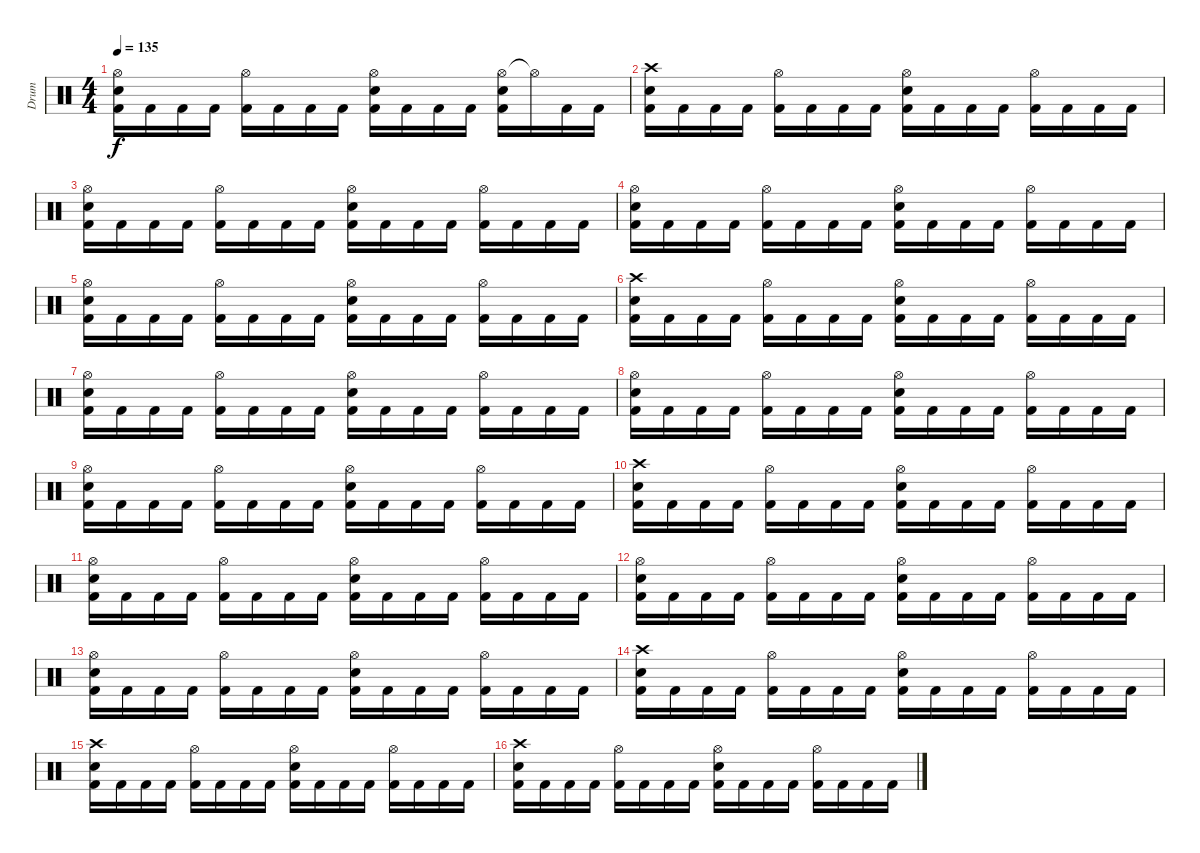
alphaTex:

\track ("Drum" "Drum") {instrument percussion}
\staff {score}
\articulation defaults
\ts (4 4)
\tempo 135
\clef neutral
\ks c
("Hi-Hat (open)" "Snare (hit) 2" "Kick (hit) 2").16{dy f} "Kick (hit) 2".16 "Kick (hit) 2".16 "Kick (hit) 2".16 ("Hi-Hat (open)" "Kick (hit) 2").16 "Kick (hit) 2".16 "Kick (hit) 2".16 "Kick (hit) 2".16 ("Hi-Hat (open)" "Snare (hit) 2" "Kick (hit) 2").16 "Kick (hit) 2".16 "Kick (hit) 2".16 "Kick (hit) 2".16 ("Hi-Hat (open)" "Snare (hit) 2" "Kick (hit) 2").16 "Hi-Hat (open)"{t}.16 "Kick (hit) 2".16 "Kick (hit) 2".16 |
("Crash high (hit)" "Snare (hit) 2" "Kick (hit) 2").16 "Kick (hit) 2".16 "Kick (hit) 2".16 "Kick (hit) 2".16 ("Hi-Hat (open)" "Kick (hit) 2").16 "Kick (hit) 2".16 "Kick (hit) 2".16 "Kick (hit) 2".16 ("Hi-Hat (open)" "Snare (hit) 2" "Kick (hit) 2").16 "Kick (hit) 2".16 "Kick (hit) 2".16 "Kick (hit) 2".16 ("Hi-Hat (open)" "Kick (hit) 2").16 "Kick (hit) 2".16 "Kick (hit) 2".16 "Kick (hit) 2".16 |
("Hi-Hat (open)" "Snare (hit) 2" "Kick (hit) 2").16 "Kick (hit) 2".16 "Kick (hit) 2".16 "Kick (hit) 2".16 ("Hi-Hat (open)" "Kick (hit) 2").16 "Kick (hit) 2".16 "Kick (hit) 2".16 "Kick (hit) 2".16 ("Hi-Hat (open)" "Snare (hit) 2" "Kick (hit) 2").16 "Kick (hit) 2".16 "Kick (hit) 2".16 "Kick (hit) 2".16 ("Hi-Hat (open)" "Kick (hit) 2").16 "Kick (hit) 2".16 "Kick (hit) 2".16 "Kick (hit) 2".16 |
("Hi-Hat (open)" "Snare (hit) 2" "Kick (hit) 2").16 "Kick (hit) 2".16 "Kick (hit) 2".16 "Kick (hit) 2".16 ("Hi-Hat (open)" "Kick (hit) 2").16 "Kick (hit) 2".16 "Kick (hit) 2".16 "Kick (hit) 2".16 ("Hi-Hat (open)" "Snare (hit) 2" "Kick (hit) 2").16 "Kick (hit) 2".16 "Kick (hit) 2".16 "Kick (hit) 2".16 ("Hi-Hat (open)" "Kick (hit) 2").16 "Kick (hit) 2".16 "Kick (hit) 2".16 "Kick (hit) 2".16 |
("Hi-Hat (open)" "Snare (hit) 2" "Kick (hit) 2").16 "Kick (hit) 2".16 "Kick (hit) 2".16 "Kick (hit) 2".16 ("Hi-Hat (open)" "Kick (hit) 2").16 "Kick (hit) 2".16 "Kick (hit) 2".16 "Kick (hit) 2".16 ("Hi-Hat (open)" "Snare (hit) 2" "Kick (hit) 2").16 "Kick (hit) 2".16 "Kick (hit) 2".16 "Kick (hit) 2".16 ("Hi-Hat (open)" "Kick (hit) 2").16 "Kick (hit) 2".16 "Kick (hit) 2".16 "Kick (hit) 2".16 |
("Crash high (hit)" "Snare (hit) 2" "Kick (hit) 2").16 "Kick (hit) 2".16 "Kick (hit) 2".16 "Kick (hit) 2".16 ("Hi-Hat (open)" "Kick (hit) 2").16 "Kick (hit) 2".16 "Kick (hit) 2".16 "Kick (hit) 2".16 ("Hi-Hat (open)" "Snare (hit) 2" "Kick (hit) 2").16 "Kick (hit) 2".16 "Kick (hit) 2".16 "Kick (hit) 2".16 ("Hi-Hat (open)" "Kick (hit) 2").16 "Kick (hit) 2".16 "Kick (hit) 2".16 "Kick (hit) 2".16 |
("Hi-Hat (open)" "Snare (hit) 2" "Kick (hit) 2").16 "Kick (hit) 2".16 "Kick (hit) 2".16 "Kick (hit) 2".16 ("Hi-Hat (open)" "Kick (hit) 2").16 "Kick (hit) 2".16 "Kick (hit) 2".16 "Kick (hit) 2".16 ("Hi-Hat (open)" "Snare (hit) 2" "Kick (hit) 2").16 "Kick (hit) 2".16 "Kick (hit) 2".16 "Kick (hit) 2".16 ("Hi-Hat (open)" "Kick (hit) 2").16 "Kick (hit) 2".16 "Kick (hit) 2".16 "Kick (hit) 2".16 |
("Hi-Hat (open)" "Snare (hit) 2" "Kick (hit) 2").16 "Kick (hit) 2".16 "Kick (hit) 2".16 "Kick (hit) 2".16 ("Hi-Hat (open)" "Kick (hit) 2").16 "Kick (hit) 2".16 "Kick (hit) 2".16 "Kick (hit) 2".16 ("Hi-Hat (open)" "Snare (hit) 2" "Kick (hit) 2").16 "Kick (hit) 2".16 "Kick (hit) 2".16 "Kick (hit) 2".16 ("Hi-Hat (open)" "Kick (hit) 2").16 "Kick (hit) 2".16 "Kick (hit) 2".16 "Kick (hit) 2".16 |
("Hi-Hat (open)" "Snare (hit) 2" "Kick (hit) 2").16 "Kick (hit) 2".16 "Kick (hit) 2".16 "Kick (hit) 2".16 ("Hi-Hat (open)" "Kick (hit) 2").16 "Kick (hit) 2".16 "Kick (hit) 2".16 "Kick (hit) 2".16 ("Hi-Hat (open)" "Snare (hit) 2" "Kick (hit) 2").16 "Kick (hit) 2".16 "Kick (hit) 2".16 "Kick (hit) 2".16 ("Hi-Hat (open)" "Kick (hit) 2").16 "Kick (hit) 2".16 "Kick (hit) 2".16 "Kick (hit) 2".16 |
("Crash high (hit)" "Snare (hit) 2" "Kick (hit) 2").16 "Kick (hit) 2".16 "Kick (hit) 2".16 "Kick (hit) 2".16 ("Hi-Hat (open)" "Kick (hit) 2").16 "Kick (hit) 2".16 "Kick (hit) 2".16 "Kick (hit) 2".16 ("Hi-Hat (open)" "Snare (hit) 2" "Kick (hit) 2").16 "Kick (hit) 2".16 "Kick (hit) 2".16 "Kick (hit) 2".16 ("Hi-Hat (open)" "Kick (hit) 2").16 "Kick (hit) 2".16 "Kick (hit) 2".16 "Kick (hit) 2".16 |
("Hi-Hat (open)" "Snare (hit) 2" "Kick (hit) 2").16 "Kick (hit) 2".16 "Kick (hit) 2".16 "Kick (hit) 2".16 ("Hi-Hat (open)" "Kick (hit) 2").16 "Kick (hit) 2".16 "Kick (hit) 2".16 "Kick (hit) 2".16 ("Hi-Hat (open)" "Snare (hit) 2" "Kick (hit) 2").16 "Kick (hit) 2".16 "Kick (hit) 2".16 "Kick (hit) 2".16 ("Hi-Hat (open)" "Kick (hit) 2").16 "Kick (hit) 2".16 "Kick (hit) 2".16 "Kick (hit) 2".16 |
("Hi-Hat (open)" "Snare (hit) 2" "Kick (hit) 2").16 "Kick (hit) 2".16 "Kick (hit) 2".16 "Kick (hit) 2".16 ("Hi-Hat (open)" "Kick (hit) 2").16 "Kick (hit) 2".16 "Kick (hit) 2".16 "Kick (hit) 2".16 ("Hi-Hat (open)" "Snare (hit) 2" "Kick (hit) 2").16 "Kick (hit) 2".16 "Kick (hit) 2".16 "Kick (hit) 2".16 ("Hi-Hat (open)" "Kick (hit) 2").16 "Kick (hit) 2".16 "Kick (hit) 2".16 "Kick (hit) 2".16 |
("Hi-Hat (open)" "Snare (hit) 2" "Kick (hit) 2").16 "Kick (hit) 2".16 "Kick (hit) 2".16 "Kick (hit) 2".16 ("Hi-Hat (open)" "Kick (hit) 2").16 "Kick (hit) 2".16 "Kick (hit) 2".16 "Kick (hit) 2".16 ("Hi-Hat (open)" "Snare (hit) 2" "Kick (hit) 2").16 "Kick (hit) 2".16 "Kick (hit) 2".16 "Kick (hit) 2".16 ("Hi-Hat (open)" "Kick (hit) 2").16 "Kick (hit) 2".16 "Kick (hit) 2".16 "Kick (hit) 2".16 |
("Crash high (hit)" "Snare (hit) 2" "Kick (hit) 2").16 "Kick (hit) 2".16 "Kick (hit) 2".16 "Kick (hit) 2".16 ("Hi-Hat (open)" "Kick (hit) 2").16 "Kick (hit) 2".16 "Kick (hit) 2".16 "Kick (hit) 2".16 ("Hi-Hat (open)" "Snare (hit) 2" "Kick (hit) 2").16 "Kick (hit) 2".16 "Kick (hit) 2".16 "Kick (hit) 2".16 ("Hi-Hat (open)" "Kick (hit) 2").16 "Kick (hit) 2".16 "Kick (hit) 2".16 "Kick (hit) 2".16 |
("Crash high (hit)" "Snare (hit) 2" "Kick (hit) 2").16 "Kick (hit) 2".16 "Kick (hit) 2".16 "Kick (hit) 2".16 ("Hi-Hat (open)" "Kick (hit) 2").16 "Kick (hit) 2".16 "Kick (hit) 2".16 "Kick (hit) 2".16 ("Hi-Hat (open)" "Snare (hit) 2" "Kick (hit) 2").16 "Kick (hit) 2".16 "Kick (hit) 2".16 "Kick (hit) 2".16 ("Hi-Hat (open)" "Kick (hit) 2").16 "Kick (hit) 2".16 "Kick (hit) 2".16 "Kick (hit) 2".16 |
("Crash high (hit)" "Snare (hit) 2" "Kick (hit) 2").16 "Kick (hit) 2".16 "Kick (hit) 2".16 "Kick (hit) 2".16 ("Hi-Hat (open)" "Kick (hit) 2").16 "Kick (hit) 2".16 "Kick (hit) 2".16 "Kick (hit) 2".16 ("Hi-Hat (open)" "Snare (hit) 2" "Kick (hit) 2").16 "Kick (hit) 2".16 "Kick (hit) 2".16 "Kick (hit) 2".16 ("Hi-Hat (open)" "Kick (hit) 2").16 "Kick (hit) 2".16 "Kick (hit) 2".16 "Kick (hit) 2".16
